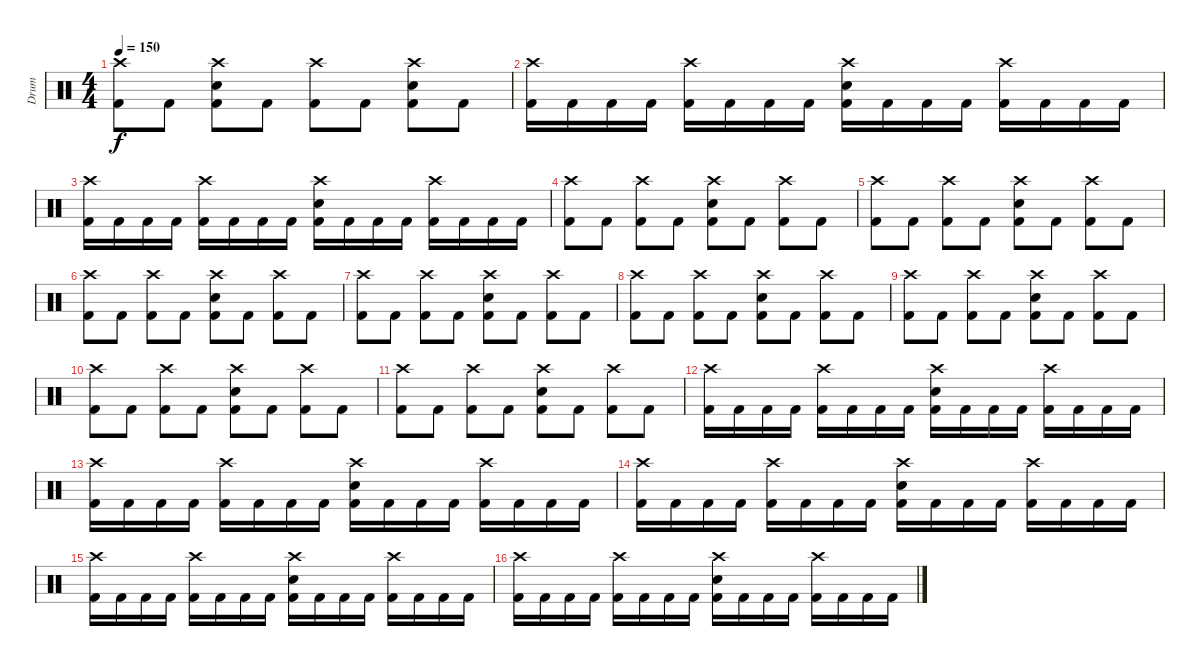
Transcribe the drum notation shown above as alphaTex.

\track ("Drum" "Drum") {instrument percussion}
\staff {score}
\articulation defaults
\ts (4 4)
\tempo 150
\clef neutral
\ks c
("Crash high (hit)" "Kick (hit) 2").8{dy f} "Kick (hit) 2".8 ("Crash high (hit)" "Electric Snare (hit)" "Kick (hit) 2").8 "Kick (hit) 2".8 ("Crash high (hit)" "Kick (hit) 2").8 "Kick (hit) 2".8 ("Crash high (hit)" "Electric Snare (hit)" "Kick (hit) 2").8 "Kick (hit) 2".8 |
("Crash high (hit)" "Kick (hit) 2").16 "Kick (hit) 2".16 "Kick (hit) 2".16 "Kick (hit) 2".16 ("Crash high (hit)" "Kick (hit) 2").16 "Kick (hit) 2".16 "Kick (hit) 2".16 "Kick (hit) 2".16 ("Crash high (hit)" "Electric Snare (hit)" "Kick (hit) 2").16 "Kick (hit) 2".16 "Kick (hit) 2".16 "Kick (hit) 2".16 ("Crash high (hit)" "Kick (hit) 2").16 "Kick (hit) 2".16 "Kick (hit) 2".16 "Kick (hit) 2".16 |
("Crash high (hit)" "Kick (hit) 2").16 "Kick (hit) 2".16 "Kick (hit) 2".16 "Kick (hit) 2".16 ("Crash high (hit)" "Kick (hit) 2").16 "Kick (hit) 2".16 "Kick (hit) 2".16 "Kick (hit) 2".16 ("Crash high (hit)" "Electric Snare (hit)" "Kick (hit) 2").16 "Kick (hit) 2".16 "Kick (hit) 2".16 "Kick (hit) 2".16 ("Crash high (hit)" "Kick (hit) 2").16 "Kick (hit) 2".16 "Kick (hit) 2".16 "Kick (hit) 2".16 |
("Crash high (hit)" "Kick (hit) 2").8 "Kick (hit) 2".8 ("Crash high (hit)" "Kick (hit) 2").8 "Kick (hit) 2".8 ("Crash high (hit)" "Electric Snare (hit)" "Kick (hit) 2").8 "Kick (hit) 2".8 ("Crash high (hit)" "Kick (hit) 2").8 "Kick (hit) 2".8 |
("Crash high (hit)" "Kick (hit) 2").8 "Kick (hit) 2".8 ("Crash high (hit)" "Kick (hit) 2").8 "Kick (hit) 2".8 ("Crash high (hit)" "Electric Snare (hit)" "Kick (hit) 2").8 "Kick (hit) 2".8 ("Crash high (hit)" "Kick (hit) 2").8 "Kick (hit) 2".8 |
("Crash high (hit)" "Kick (hit) 2").8 "Kick (hit) 2".8 ("Crash high (hit)" "Kick (hit) 2").8 "Kick (hit) 2".8 ("Crash high (hit)" "Electric Snare (hit)" "Kick (hit) 2").8 "Kick (hit) 2".8 ("Crash high (hit)" "Kick (hit) 2").8 "Kick (hit) 2".8 |
("Crash high (hit)" "Kick (hit) 2").8 "Kick (hit) 2".8 ("Crash high (hit)" "Kick (hit) 2").8 "Kick (hit) 2".8 ("Crash high (hit)" "Electric Snare (hit)" "Kick (hit) 2").8 "Kick (hit) 2".8 ("Crash high (hit)" "Kick (hit) 2").8 "Kick (hit) 2".8 |
("Crash high (hit)" "Kick (hit) 2").8 "Kick (hit) 2".8 ("Crash high (hit)" "Kick (hit) 2").8 "Kick (hit) 2".8 ("Crash high (hit)" "Electric Snare (hit)" "Kick (hit) 2").8 "Kick (hit) 2".8 ("Crash high (hit)" "Kick (hit) 2").8 "Kick (hit) 2".8 |
("Crash high (hit)" "Kick (hit) 2").8 "Kick (hit) 2".8 ("Crash high (hit)" "Kick (hit) 2").8 "Kick (hit) 2".8 ("Crash high (hit)" "Electric Snare (hit)" "Kick (hit) 2").8 "Kick (hit) 2".8 ("Crash high (hit)" "Kick (hit) 2").8 "Kick (hit) 2".8 |
("Crash high (hit)" "Kick (hit) 2").8 "Kick (hit) 2".8 ("Crash high (hit)" "Kick (hit) 2").8 "Kick (hit) 2".8 ("Crash high (hit)" "Electric Snare (hit)" "Kick (hit) 2").8 "Kick (hit) 2".8 ("Crash high (hit)" "Kick (hit) 2").8 "Kick (hit) 2".8 |
("Crash high (hit)" "Kick (hit) 2").8 "Kick (hit) 2".8 ("Crash high (hit)" "Kick (hit) 2").8 "Kick (hit) 2".8 ("Crash high (hit)" "Electric Snare (hit)" "Kick (hit) 2").8 "Kick (hit) 2".8 ("Crash high (hit)" "Kick (hit) 2").8 "Kick (hit) 2".8 |
("Crash high (hit)" "Kick (hit) 2").16 "Kick (hit) 2".16 "Kick (hit) 2".16 "Kick (hit) 2".16 ("Crash high (hit)" "Kick (hit) 2").16 "Kick (hit) 2".16 "Kick (hit) 2".16 "Kick (hit) 2".16 ("Crash high (hit)" "Electric Snare (hit)" "Kick (hit) 2").16 "Kick (hit) 2".16 "Kick (hit) 2".16 "Kick (hit) 2".16 ("Crash high (hit)" "Kick (hit) 2").16 "Kick (hit) 2".16 "Kick (hit) 2".16 "Kick (hit) 2".16 |
("Crash high (hit)" "Kick (hit) 2").16 "Kick (hit) 2".16 "Kick (hit) 2".16 "Kick (hit) 2".16 ("Crash high (hit)" "Kick (hit) 2").16 "Kick (hit) 2".16 "Kick (hit) 2".16 "Kick (hit) 2".16 ("Crash high (hit)" "Electric Snare (hit)" "Kick (hit) 2").16 "Kick (hit) 2".16 "Kick (hit) 2".16 "Kick (hit) 2".16 ("Crash high (hit)" "Kick (hit) 2").16 "Kick (hit) 2".16 "Kick (hit) 2".16 "Kick (hit) 2".16 |
("Crash high (hit)" "Kick (hit) 2").16 "Kick (hit) 2".16 "Kick (hit) 2".16 "Kick (hit) 2".16 ("Crash high (hit)" "Kick (hit) 2").16 "Kick (hit) 2".16 "Kick (hit) 2".16 "Kick (hit) 2".16 ("Crash high (hit)" "Electric Snare (hit)" "Kick (hit) 2").16 "Kick (hit) 2".16 "Kick (hit) 2".16 "Kick (hit) 2".16 ("Crash high (hit)" "Kick (hit) 2").16 "Kick (hit) 2".16 "Kick (hit) 2".16 "Kick (hit) 2".16 |
("Crash high (hit)" "Kick (hit) 2").16 "Kick (hit) 2".16 "Kick (hit) 2".16 "Kick (hit) 2".16 ("Crash high (hit)" "Kick (hit) 2").16 "Kick (hit) 2".16 "Kick (hit) 2".16 "Kick (hit) 2".16 ("Crash high (hit)" "Electric Snare (hit)" "Kick (hit) 2").16 "Kick (hit) 2".16 "Kick (hit) 2".16 "Kick (hit) 2".16 ("Crash high (hit)" "Kick (hit) 2").16 "Kick (hit) 2".16 "Kick (hit) 2".16 "Kick (hit) 2".16 |
("Crash high (hit)" "Kick (hit) 2").16 "Kick (hit) 2".16 "Kick (hit) 2".16 "Kick (hit) 2".16 ("Crash high (hit)" "Kick (hit) 2").16 "Kick (hit) 2".16 "Kick (hit) 2".16 "Kick (hit) 2".16 ("Crash high (hit)" "Electric Snare (hit)" "Kick (hit) 2").16 "Kick (hit) 2".16 "Kick (hit) 2".16 "Kick (hit) 2".16 ("Crash high (hit)" "Kick (hit) 2").16 "Kick (hit) 2".16 "Kick (hit) 2".16 "Kick (hit) 2".16
